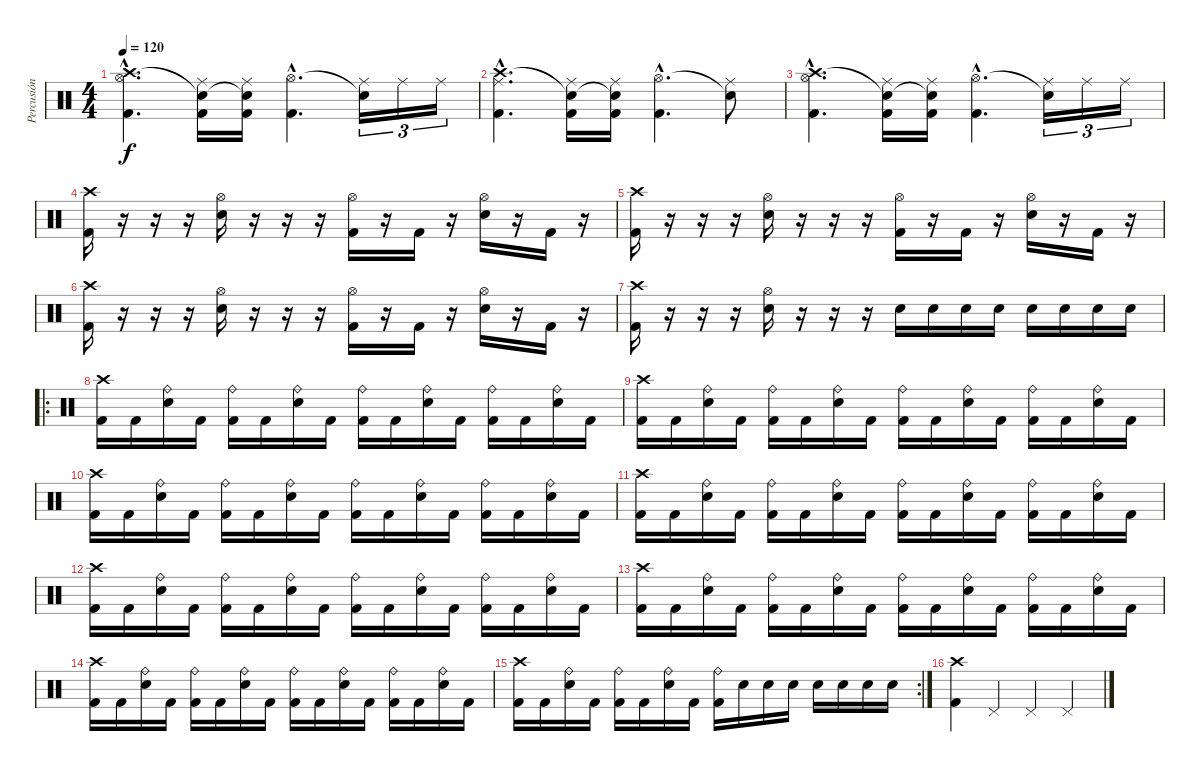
\track ("Percusión" "Percusión") {instrument percussion}
\staff {score}
\articulation defaults
\ts (4 4)
\tempo 120
\clef neutral
\ks c
("Crash high (hit)"{hac} "Hi-Hat (open)"{hac} "Kick (hit) 2"{hac}).4{d dy f} ("Snare (hit)"{t} "Kick (hit) 2" "Ride (middle)").16 ("Snare (hit)"{t} "Kick (hit) 2" "Ride (middle)").16 ("Hi-Hat (open)"{hac} "Kick (hit) 2"{hac}).4{d} ("Snare (hit)"{t} "Ride (middle)").16{tu (3 2)} "Ride (middle)".16{tu (3 2)} "Ride (middle)".16{tu (3 2)} |
("Crash high (hit)"{hac} "Ride (middle)"{hac} "Kick (hit) 2"{hac}).4{d} ("Snare (hit)"{t} "Kick (hit) 2" "Ride (middle)").16 ("Snare (hit)"{t} "Kick (hit) 2" "Ride (middle)").16 ("Hi-Hat (open)"{hac} "Kick (hit) 2"{hac}).4{d} ("Snare (hit)"{t} "Ride (middle)").8 |
("Crash high (hit)"{hac} "Hi-Hat (open)"{hac} "Kick (hit) 2"{hac}).4{d} ("Snare (hit)"{t} "Kick (hit) 2" "Ride (middle)").16 ("Snare (hit)"{t} "Kick (hit) 2" "Ride (middle)").16 ("Hi-Hat (open)"{hac} "Kick (hit) 2"{hac}).4{d} ("Snare (hit)"{t} "Ride (middle)").16{tu (3 2)} "Ride (middle)".16{tu (3 2)} "Ride (middle)".16{tu (3 2)} |
("Crash high (hit)" "Kick (hit) 2").16 r.16 r.16 r.16 ("Hi-Hat (open)" "Electric Snare (hit)").16 r.16 r.16 r.16 ("Hi-Hat (open)" "Kick (hit) 2").16 r.16 "Kick (hit) 2".16 r.16 ("Hi-Hat (open)" "Electric Snare (hit)").16 r.16 "Kick (hit) 2".16 r.16 |
("Crash high (hit)" "Kick (hit) 2").16 r.16 r.16 r.16 ("Hi-Hat (open)" "Electric Snare (hit)").16 r.16 r.16 r.16 ("Hi-Hat (open)" "Kick (hit) 2").16 r.16 "Kick (hit) 2".16 r.16 ("Hi-Hat (open)" "Electric Snare (hit)").16 r.16 "Kick (hit) 2".16 r.16 |
("Crash high (hit)" "Kick (hit) 2").16 r.16 r.16 r.16 ("Hi-Hat (open)" "Electric Snare (hit)").16 r.16 r.16 r.16 ("Hi-Hat (open)" "Kick (hit) 2").16 r.16 "Kick (hit) 2".16 r.16 ("Hi-Hat (open)" "Electric Snare (hit)").16 r.16 "Kick (hit) 2".16 r.16 |
("Crash high (hit)" "Kick (hit) 2").16 r.16 r.16 r.16 ("Hi-Hat (open)" "Electric Snare (hit)").16 r.16 r.16 r.16 "Electric Snare (hit)".16 "Electric Snare (hit)".16 "Electric Snare (hit)".16 "Electric Snare (hit)".16 "Electric Snare (hit)".16 "Electric Snare (hit)".16 "Electric Snare (hit)".16 "Electric Snare (hit)".16 |
\ro
("Crash high (hit)" "Kick (hit) 2").16 "Kick (hit) 2".16 ("Ride (bell)" "Electric Snare (hit)").16 "Kick (hit) 2".16 ("Ride (bell)" "Kick (hit) 2").16 "Kick (hit) 2".16 ("Ride (bell)" "Electric Snare (hit)").16 "Kick (hit) 2".16 ("Ride (bell)" "Kick (hit) 2").16 "Kick (hit) 2".16 ("Ride (bell)" "Electric Snare (hit)").16 "Kick (hit) 2".16 ("Ride (bell)" "Kick (hit) 2").16 "Kick (hit) 2".16 ("Ride (bell)" "Electric Snare (hit)").16 "Kick (hit) 2".16 |
("Crash high (hit)" "Kick (hit) 2").16 "Kick (hit) 2".16 ("Ride (bell)" "Electric Snare (hit)").16 "Kick (hit) 2".16 ("Ride (bell)" "Kick (hit) 2").16 "Kick (hit) 2".16 ("Ride (bell)" "Electric Snare (hit)").16 "Kick (hit) 2".16 ("Ride (bell)" "Kick (hit) 2").16 "Kick (hit) 2".16 ("Ride (bell)" "Electric Snare (hit)").16 "Kick (hit) 2".16 ("Ride (bell)" "Kick (hit) 2").16 "Kick (hit) 2".16 ("Ride (bell)" "Electric Snare (hit)").16 "Kick (hit) 2".16 |
("Crash high (hit)" "Kick (hit) 2").16 "Kick (hit) 2".16 ("Ride (bell)" "Electric Snare (hit)").16 "Kick (hit) 2".16 ("Ride (bell)" "Kick (hit) 2").16 "Kick (hit) 2".16 ("Ride (bell)" "Electric Snare (hit)").16 "Kick (hit) 2".16 ("Ride (bell)" "Kick (hit) 2").16 "Kick (hit) 2".16 ("Ride (bell)" "Electric Snare (hit)").16 "Kick (hit) 2".16 ("Ride (bell)" "Kick (hit) 2").16 "Kick (hit) 2".16 ("Ride (bell)" "Electric Snare (hit)").16 "Kick (hit) 2".16 |
("Crash high (hit)" "Kick (hit) 2").16 "Kick (hit) 2".16 ("Ride (bell)" "Electric Snare (hit)").16 "Kick (hit) 2".16 ("Ride (bell)" "Kick (hit) 2").16 "Kick (hit) 2".16 ("Ride (bell)" "Electric Snare (hit)").16 "Kick (hit) 2".16 ("Ride (bell)" "Kick (hit) 2").16 "Kick (hit) 2".16 ("Ride (bell)" "Electric Snare (hit)").16 "Kick (hit) 2".16 ("Ride (bell)" "Kick (hit) 2").16 "Kick (hit) 2".16 ("Ride (bell)" "Electric Snare (hit)").16 "Kick (hit) 2".16 |
("Crash high (hit)" "Kick (hit) 2").16 "Kick (hit) 2".16 ("Ride (bell)" "Electric Snare (hit)").16 "Kick (hit) 2".16 ("Ride (bell)" "Kick (hit) 2").16 "Kick (hit) 2".16 ("Ride (bell)" "Electric Snare (hit)").16 "Kick (hit) 2".16 ("Ride (bell)" "Kick (hit) 2").16 "Kick (hit) 2".16 ("Ride (bell)" "Electric Snare (hit)").16 "Kick (hit) 2".16 ("Ride (bell)" "Kick (hit) 2").16 "Kick (hit) 2".16 ("Ride (bell)" "Electric Snare (hit)").16 "Kick (hit) 2".16 |
("Crash high (hit)" "Kick (hit) 2").16 "Kick (hit) 2".16 ("Ride (bell)" "Electric Snare (hit)").16 "Kick (hit) 2".16 ("Ride (bell)" "Kick (hit) 2").16 "Kick (hit) 2".16 ("Ride (bell)" "Electric Snare (hit)").16 "Kick (hit) 2".16 ("Ride (bell)" "Kick (hit) 2").16 "Kick (hit) 2".16 ("Ride (bell)" "Electric Snare (hit)").16 "Kick (hit) 2".16 ("Ride (bell)" "Kick (hit) 2").16 "Kick (hit) 2".16 ("Ride (bell)" "Electric Snare (hit)").16 "Kick (hit) 2".16 |
("Crash high (hit)" "Kick (hit) 2").16 "Kick (hit) 2".16 ("Ride (bell)" "Electric Snare (hit)").16 "Kick (hit) 2".16 ("Ride (bell)" "Kick (hit) 2").16 "Kick (hit) 2".16 ("Ride (bell)" "Electric Snare (hit)").16 "Kick (hit) 2".16 ("Ride (bell)" "Kick (hit) 2").16 "Kick (hit) 2".16 ("Ride (bell)" "Electric Snare (hit)").16 "Kick (hit) 2".16 ("Ride (bell)" "Kick (hit) 2").16 "Kick (hit) 2".16 ("Ride (bell)" "Electric Snare (hit)").16 "Kick (hit) 2".16 |
\rc 2
("Crash high (hit)" "Kick (hit) 2").16 "Kick (hit) 2".16 ("Ride (bell)" "Electric Snare (hit)").16 "Kick (hit) 2".16 ("Ride (bell)" "Kick (hit) 2").16 "Kick (hit) 2".16 ("Ride (bell)" "Electric Snare (hit)").16 "Kick (hit) 2".16 ("Ride (bell)" "Kick (hit) 2").16 "Electric Snare (hit)".16 "Electric Snare (hit)".16 "Electric Snare (hit)".16 "Electric Snare (hit)".16 "Electric Snare (hit)".16 "Electric Snare (hit)".16 "Electric Snare (hit)".16 |
("Crash high (hit)" "Kick (hit) 2").4 "Pedal Hi-Hat (hit)".4 "Pedal Hi-Hat (hit)".4 "Pedal Hi-Hat (hit)".4
